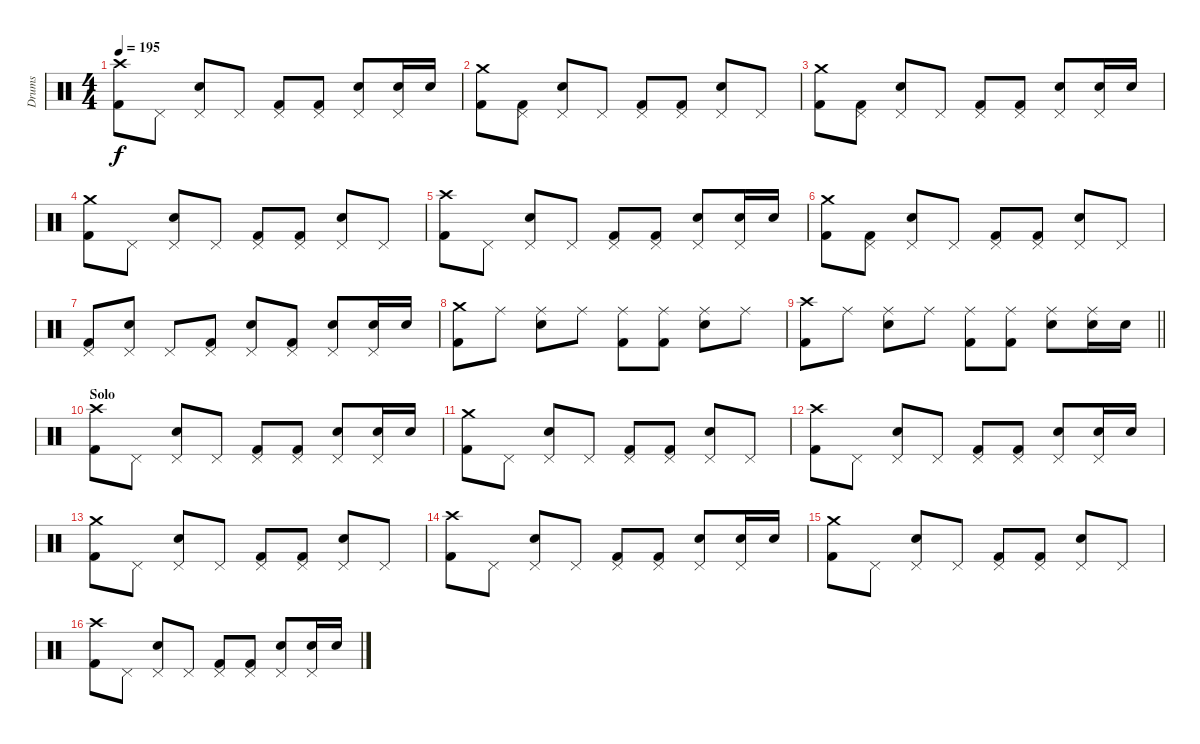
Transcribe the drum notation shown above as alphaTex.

\track ("Drums" "Drums") {instrument percussion}
\staff {score}
\articulation defaults
\ts (4 4)
\tempo 195
\clef neutral
\ks c
("Crash high (hit)" "Kick (hit) 2").8{dy f} "Pedal Hi-Hat (hit)".8 ("Pedal Hi-Hat (hit)" "Electric Snare (hit)").8 "Pedal Hi-Hat (hit)".8 ("Pedal Hi-Hat (hit)" "Kick (hit) 2").8 ("Pedal Hi-Hat (hit)" "Kick (hit) 2").8 ("Pedal Hi-Hat (hit)" "Electric Snare (hit)").8 ("Pedal Hi-Hat (hit)" "Electric Snare (hit)").16 "Electric Snare (hit)".16 |
("Crash medium (hit)" "Kick (hit) 2").8 ("Pedal Hi-Hat (hit)" "Kick (hit) 2").8 ("Pedal Hi-Hat (hit)" "Electric Snare (hit)").8 "Pedal Hi-Hat (hit)".8 ("Pedal Hi-Hat (hit)" "Kick (hit) 2").8 ("Pedal Hi-Hat (hit)" "Kick (hit) 2").8 ("Pedal Hi-Hat (hit)" "Electric Snare (hit)").8 "Pedal Hi-Hat (hit)".8 |
("Crash medium (hit)" "Kick (hit) 2").8 ("Pedal Hi-Hat (hit)" "Kick (hit) 2").8 ("Pedal Hi-Hat (hit)" "Electric Snare (hit)").8 "Pedal Hi-Hat (hit)".8 ("Pedal Hi-Hat (hit)" "Kick (hit) 2").8 ("Pedal Hi-Hat (hit)" "Kick (hit) 2").8 ("Pedal Hi-Hat (hit)" "Electric Snare (hit)").8 ("Pedal Hi-Hat (hit)" "Electric Snare (hit)").16 "Electric Snare (hit)".16 |
("Crash medium (hit)" "Kick (hit) 2").8 "Pedal Hi-Hat (hit)".8 ("Pedal Hi-Hat (hit)" "Electric Snare (hit)").8 "Pedal Hi-Hat (hit)".8 ("Pedal Hi-Hat (hit)" "Kick (hit) 2").8 ("Pedal Hi-Hat (hit)" "Kick (hit) 2").8 ("Pedal Hi-Hat (hit)" "Electric Snare (hit)").8 "Pedal Hi-Hat (hit)".8 |
("Crash high (hit)" "Kick (hit) 2").8 "Pedal Hi-Hat (hit)".8 ("Pedal Hi-Hat (hit)" "Electric Snare (hit)").8 "Pedal Hi-Hat (hit)".8 ("Pedal Hi-Hat (hit)" "Kick (hit) 2").8 ("Pedal Hi-Hat (hit)" "Kick (hit) 2").8 ("Pedal Hi-Hat (hit)" "Electric Snare (hit)").8 ("Pedal Hi-Hat (hit)" "Electric Snare (hit)").16 "Electric Snare (hit)".16 |
("Crash medium (hit)" "Kick (hit) 2").8 ("Pedal Hi-Hat (hit)" "Kick (hit) 2").8 ("Pedal Hi-Hat (hit)" "Electric Snare (hit)").8 "Pedal Hi-Hat (hit)".8 ("Pedal Hi-Hat (hit)" "Kick (hit) 2").8 ("Pedal Hi-Hat (hit)" "Kick (hit) 2").8 ("Pedal Hi-Hat (hit)" "Electric Snare (hit)").8 "Pedal Hi-Hat (hit)".8 |
("Pedal Hi-Hat (hit)" "Kick (hit) 2").8 ("Pedal Hi-Hat (hit)" "Electric Snare (hit)").8 "Pedal Hi-Hat (hit)".8 ("Pedal Hi-Hat (hit)" "Kick (hit) 2").8 ("Pedal Hi-Hat (hit)" "Electric Snare (hit)").8 ("Pedal Hi-Hat (hit)" "Kick (hit) 2").8 ("Pedal Hi-Hat (hit)" "Electric Snare (hit)").8 ("Pedal Hi-Hat (hit)" "Electric Snare (hit)").16 "Electric Snare (hit)".16 |
("Crash medium (hit)" "Kick (hit) 2").8 "Ride (middle)".8 ("Ride (middle)" "Electric Snare (hit)").8 "Ride (middle)".8 ("Ride (middle)" "Kick (hit) 2").8 ("Ride (middle)" "Kick (hit) 2").8 ("Ride (middle)" "Electric Snare (hit)").8 "Ride (middle)".8 |
\barLineRight lightlight
("Crash high (hit)" "Kick (hit) 2").8 "Ride (middle)".8 ("Ride (middle)" "Electric Snare (hit)").8 "Ride (middle)".8 ("Ride (middle)" "Kick (hit) 2").8 ("Ride (middle)" "Kick (hit) 2").8 ("Ride (middle)" "Electric Snare (hit)").8 ("Ride (middle)" "Electric Snare (hit)").16 "Electric Snare (hit)".16 |
\section ("" "Solo")
("Crash high (hit)" "Kick (hit) 2").8 "Pedal Hi-Hat (hit)".8 ("Pedal Hi-Hat (hit)" "Electric Snare (hit)").8 "Pedal Hi-Hat (hit)".8 ("Pedal Hi-Hat (hit)" "Kick (hit) 2").8 ("Pedal Hi-Hat (hit)" "Kick (hit) 2").8 ("Pedal Hi-Hat (hit)" "Electric Snare (hit)").8 ("Pedal Hi-Hat (hit)" "Electric Snare (hit)").16 "Electric Snare (hit)".16 |
("Crash medium (hit)" "Kick (hit) 2").8 "Pedal Hi-Hat (hit)".8 ("Pedal Hi-Hat (hit)" "Electric Snare (hit)").8 "Pedal Hi-Hat (hit)".8 ("Pedal Hi-Hat (hit)" "Kick (hit) 2").8 ("Pedal Hi-Hat (hit)" "Kick (hit) 2").8 ("Pedal Hi-Hat (hit)" "Electric Snare (hit)").8 "Pedal Hi-Hat (hit)".8 |
("Crash high (hit)" "Kick (hit) 2").8 "Pedal Hi-Hat (hit)".8 ("Pedal Hi-Hat (hit)" "Electric Snare (hit)").8 "Pedal Hi-Hat (hit)".8 ("Pedal Hi-Hat (hit)" "Kick (hit) 2").8 ("Pedal Hi-Hat (hit)" "Kick (hit) 2").8 ("Pedal Hi-Hat (hit)" "Electric Snare (hit)").8 ("Pedal Hi-Hat (hit)" "Electric Snare (hit)").16 "Electric Snare (hit)".16 |
("Crash medium (hit)" "Kick (hit) 2").8 "Pedal Hi-Hat (hit)".8 ("Pedal Hi-Hat (hit)" "Electric Snare (hit)").8 "Pedal Hi-Hat (hit)".8 ("Pedal Hi-Hat (hit)" "Kick (hit) 2").8 ("Pedal Hi-Hat (hit)" "Kick (hit) 2").8 ("Pedal Hi-Hat (hit)" "Electric Snare (hit)").8 "Pedal Hi-Hat (hit)".8 |
("Crash high (hit)" "Kick (hit) 2").8 "Pedal Hi-Hat (hit)".8 ("Pedal Hi-Hat (hit)" "Electric Snare (hit)").8 "Pedal Hi-Hat (hit)".8 ("Pedal Hi-Hat (hit)" "Kick (hit) 2").8 ("Pedal Hi-Hat (hit)" "Kick (hit) 2").8 ("Pedal Hi-Hat (hit)" "Electric Snare (hit)").8 ("Pedal Hi-Hat (hit)" "Electric Snare (hit)").16 "Electric Snare (hit)".16 |
("Crash medium (hit)" "Kick (hit) 2").8 "Pedal Hi-Hat (hit)".8 ("Pedal Hi-Hat (hit)" "Electric Snare (hit)").8 "Pedal Hi-Hat (hit)".8 ("Pedal Hi-Hat (hit)" "Kick (hit) 2").8 ("Pedal Hi-Hat (hit)" "Kick (hit) 2").8 ("Pedal Hi-Hat (hit)" "Electric Snare (hit)").8 "Pedal Hi-Hat (hit)".8 |
("Crash high (hit)" "Kick (hit) 2").8 "Pedal Hi-Hat (hit)".8 ("Pedal Hi-Hat (hit)" "Electric Snare (hit)").8 "Pedal Hi-Hat (hit)".8 ("Pedal Hi-Hat (hit)" "Kick (hit) 2").8 ("Pedal Hi-Hat (hit)" "Kick (hit) 2").8 ("Pedal Hi-Hat (hit)" "Electric Snare (hit)").8 ("Pedal Hi-Hat (hit)" "Electric Snare (hit)").16 "Electric Snare (hit)".16
